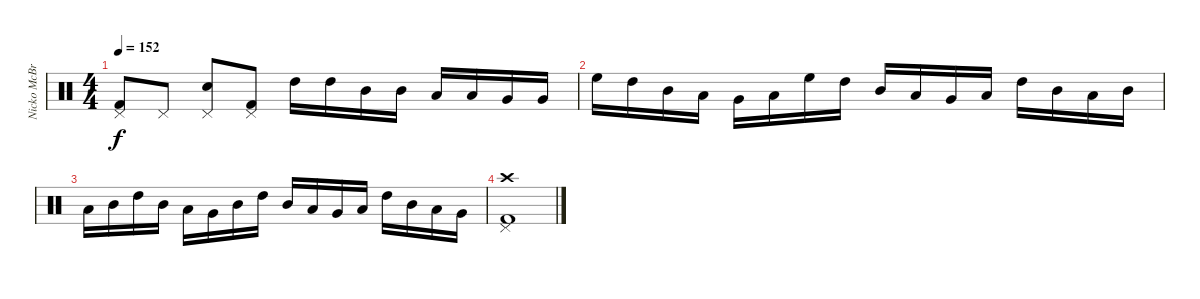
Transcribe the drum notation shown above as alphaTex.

\track ("Nicko McBrain" "Nicko McBr") {instrument percussion}
\staff {score}
\articulation defaults
\ts (4 4)
\tempo 152
\clef neutral
\ks c
("Kick (hit) 2" "Pedal Hi-Hat (hit)").8{dy f} "Pedal Hi-Hat (hit)".8 ("Snare (hit) 2" "Pedal Hi-Hat (hit)").8 ("Kick (hit) 2" "Pedal Hi-Hat (hit)").8 "High Tom (hit)".16 "High Tom (hit)".16 "Mid Tom (hit)".16 "Mid Tom (hit)".16 "Low Tom (hit)".16 "Low Tom (hit)".16 "Very Low Tom (hit)".16 "Very Low Tom (hit)".16 |
"High Floor Tom (hit)".16 "High Tom (hit)".16 "Mid Tom (hit)".16 "Low Tom (hit)".16 "Very Low Tom (hit)".16 "Low Floor Tom (hit)".16 "High Floor Tom (hit)".16 "High Tom (hit)".16 "Mid Tom (hit)".16 "Low Tom (hit)".16 "Very Low Tom (hit)".16 "Low Floor Tom (hit)".16 "High Tom (hit)".16 "Mid Tom (hit)".16 "Low Tom (hit)".16 "Mid Tom (hit)".16 |
"Low Tom (hit)".16 "Mid Tom (hit)".16 "High Tom (hit)".16 "Mid Tom (hit)".16 "Low Tom (hit)".16 "Very Low Tom (hit)".16 "Mid Tom (hit)".16 "High Tom (hit)".16 "Mid Tom (hit)".16 "Low Tom (hit)".16 "Very Low Tom (hit)".16 "Low Floor Tom (hit)".16 "High Tom (hit)".16 "Mid Tom (hit)".16 "Low Tom (hit)".16 "Very Low Tom (hit)".16 |
("Kick (hit) 2" "Pedal Hi-Hat (hit)" "Crash high (hit)").1
